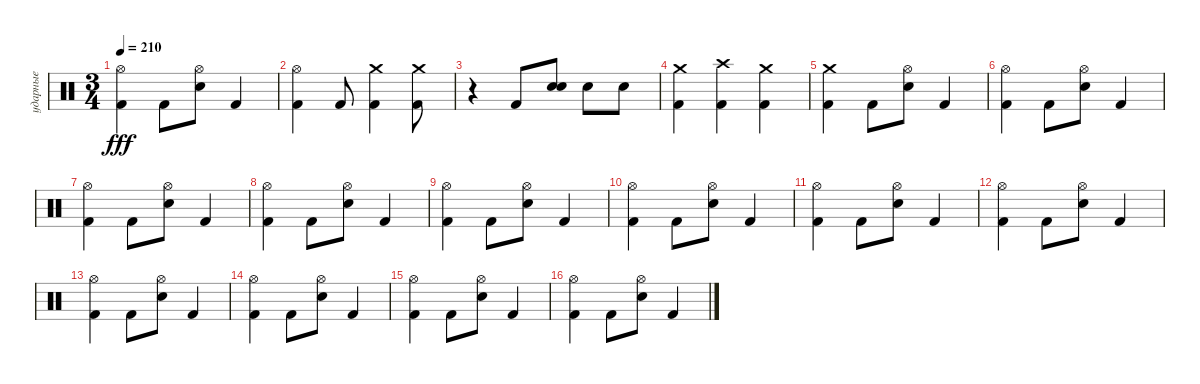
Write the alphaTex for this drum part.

\track ("ударные" "ударные") {instrument percussion}
\staff {score}
\articulation defaults
\ts (3 4)
\tempo 210
\clef neutral
\ks c
("Hi-Hat (open)" "Kick (hit) 2").4{dy fff} "Kick (hit) 2".8 ("Hi-Hat (open)" "Snare (hit) 2").8 "Kick (hit) 2".4 |
("Hi-Hat (open)" "Kick (hit) 2").4 "Kick (hit) 2".8 ("Crash medium (hit)" "Kick (hit) 2").4 ("Crash medium (hit)" "Kick (hit) 2").8 |
r.4 "Kick (hit) 2".8 ("Snare (hit) 2" "Snare (hit) 2").8{bd 120} "Snare (hit) 2".8 "Snare (hit) 2".8 |
("Crash medium (hit)" "Kick (hit) 2").4 ("Crash high (hit)" "Kick (hit) 2").4 ("Crash medium (hit)" "Kick (hit) 2").4 |
("Crash medium (hit)" "Kick (hit) 2").4 "Kick (hit) 2".8 ("Hi-Hat (open)" "Snare (hit) 2").8 "Kick (hit) 2".4 |
("Hi-Hat (open)" "Kick (hit) 2").4 "Kick (hit) 2".8 ("Hi-Hat (open)" "Snare (hit) 2").8 "Kick (hit) 2".4 |
("Hi-Hat (open)" "Kick (hit) 2").4 "Kick (hit) 2".8 ("Hi-Hat (open)" "Snare (hit) 2").8 "Kick (hit) 2".4 |
("Hi-Hat (open)" "Kick (hit) 2").4 "Kick (hit) 2".8 ("Hi-Hat (open)" "Snare (hit) 2").8 "Kick (hit) 2".4 |
("Hi-Hat (open)" "Kick (hit) 2").4 "Kick (hit) 2".8 ("Hi-Hat (open)" "Snare (hit) 2").8 "Kick (hit) 2".4 |
("Hi-Hat (open)" "Kick (hit) 2").4 "Kick (hit) 2".8 ("Hi-Hat (open)" "Snare (hit) 2").8 "Kick (hit) 2".4 |
("Hi-Hat (open)" "Kick (hit) 2").4 "Kick (hit) 2".8 ("Hi-Hat (open)" "Snare (hit) 2").8 "Kick (hit) 2".4 |
("Hi-Hat (open)" "Kick (hit) 2").4 "Kick (hit) 2".8 ("Hi-Hat (open)" "Snare (hit) 2").8 "Kick (hit) 2".4 |
("Hi-Hat (open)" "Kick (hit) 2").4 "Kick (hit) 2".8 ("Hi-Hat (open)" "Snare (hit) 2").8 "Kick (hit) 2".4 |
("Hi-Hat (open)" "Kick (hit) 2").4 "Kick (hit) 2".8 ("Hi-Hat (open)" "Snare (hit) 2").8 "Kick (hit) 2".4 |
("Hi-Hat (open)" "Kick (hit) 2").4 "Kick (hit) 2".8 ("Hi-Hat (open)" "Snare (hit) 2").8 "Kick (hit) 2".4 |
("Hi-Hat (open)" "Kick (hit) 2").4 "Kick (hit) 2".8 ("Hi-Hat (open)" "Snare (hit) 2").8 "Kick (hit) 2".4
